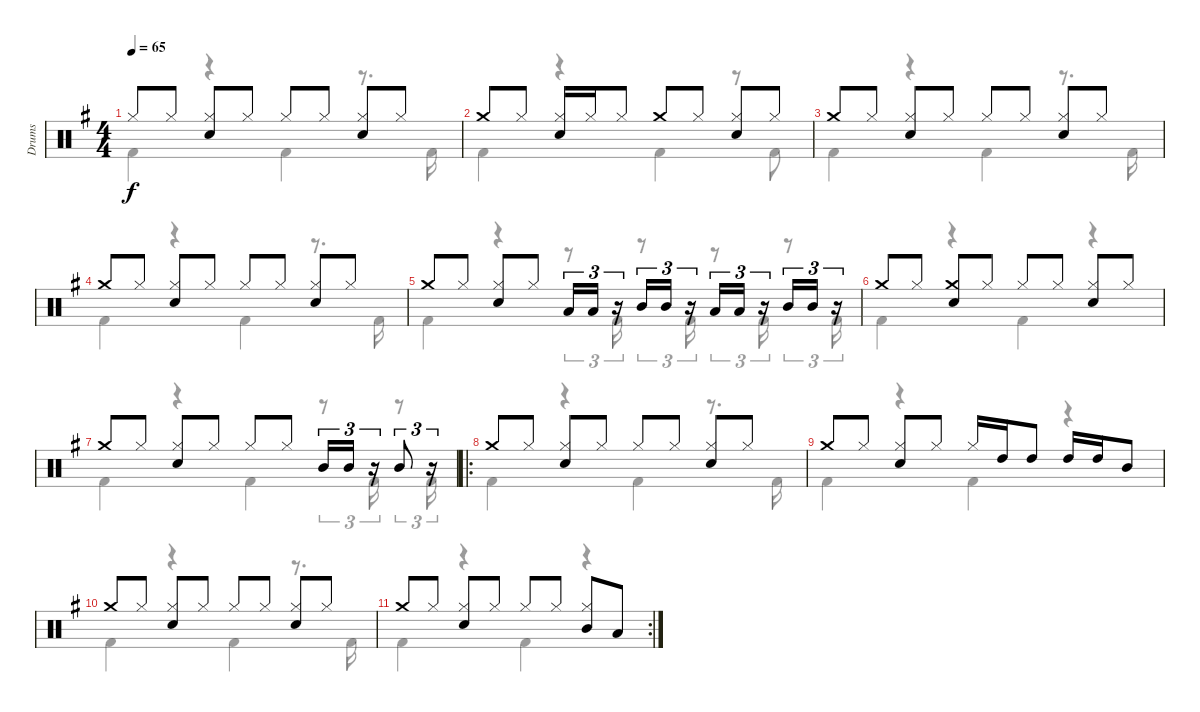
\track ("Drums" "Drums") {instrument percussion}
\staff {score}
\articulation defaults
\voice
\ts (4 4)
\tempo 65
\clef neutral
\ks g "Hi-Hat (closed)".8{dy f} "Hi-Hat (closed)".8
("Hi-Hat (closed)" "Snare (hit) 2").8 "Hi-Hat (closed)".8 "Hi-Hat (closed)".8 "Hi-Hat (closed)".8 ("Hi-Hat (closed)" "Snare (hit) 2").8 "Hi-Hat (closed)".8 |
"Crash medium (hit)".8 "Hi-Hat (closed)".8 ("Hi-Hat (closed)" "Snare (hit) 2").16 "Hi-Hat (closed)".16 "Hi-Hat (closed)".8 "Crash medium (hit)".8 "Hi-Hat (closed)".8 ("Hi-Hat (closed)" "Snare (hit) 2").8 "Hi-Hat (closed)".8 |
"Crash medium (hit)".8 "Hi-Hat (closed)".8 ("Hi-Hat (closed)" "Snare (hit) 2").8 "Hi-Hat (closed)".8 "Hi-Hat (closed)".8 "Hi-Hat (closed)".8 ("Hi-Hat (closed)" "Snare (hit) 2").8 "Hi-Hat (closed)".8 |
"Crash medium (hit)".8 "Hi-Hat (closed)".8 ("Hi-Hat (closed)" "Snare (hit) 2").8 "Hi-Hat (closed)".8 "Hi-Hat (closed)".8 "Hi-Hat (closed)".8 ("Hi-Hat (closed)" "Snare (hit) 2").8 "Hi-Hat (closed)".8 |
"Crash medium (hit)".8 "Hi-Hat (closed)".8 ("Hi-Hat (closed)" "Snare (hit) 2").8 "Hi-Hat (closed)".8 "Low Tom (hit)".16{tu (3 2)} "Low Tom (hit)".16{tu (3 2)} r.16{tu (3 2)} "Mid Tom (hit)".16{tu (3 2)} "Mid Tom (hit)".16{tu (3 2)} r.16{tu (3 2)} "Low Tom (hit)".16{tu (3 2)} "Low Tom (hit)".16{tu (3 2)} r.16{tu (3 2)} "Mid Tom (hit)".16{tu (3 2)} "Mid Tom (hit)".16{tu (3 2)} r.16{tu (3 2)} |
"Crash medium (hit)".8 "Hi-Hat (closed)".8 ("Crash medium (hit)" "Snare (hit) 2").8 "Hi-Hat (closed)".8 "Hi-Hat (closed)".8 "Hi-Hat (closed)".8 ("Hi-Hat (closed)" "Snare (hit) 2").8 "Hi-Hat (closed)".8 |
"Crash medium (hit)".8 "Hi-Hat (closed)".8 ("Hi-Hat (closed)" "Snare (hit) 2").8 "Hi-Hat (closed)".8 "Hi-Hat (closed)".8 "Hi-Hat (closed)".8 "Mid Tom (hit)".16{tu (3 2)} "Mid Tom (hit)".16{tu (3 2)} r.16{tu (3 2)} "Mid Tom (hit)".8{tu (3 2)} r.16{tu (3 2)} |
\ro "Crash medium (hit)".8 "Hi-Hat (closed)".8
("Hi-Hat (closed)" "Snare (hit) 2").8 "Hi-Hat (closed)".8 "Hi-Hat (closed)".8 "Hi-Hat (closed)".8 ("Hi-Hat (closed)" "Snare (hit) 2").8 "Hi-Hat (closed)".8 |
"Crash medium (hit)".8 "Hi-Hat (closed)".8 ("Hi-Hat (closed)" "Snare (hit) 2").8 "Hi-Hat (closed)".8 "Hi-Hat (closed)".16 "High Tom (hit)".16 "High Tom (hit)".8 "High Tom (hit)".16 "High Tom (hit)".16 "Mid Tom (hit)".8 |
"Crash medium (hit)".8 "Hi-Hat (closed)".8 ("Hi-Hat (closed)" "Snare (hit) 2").8 "Hi-Hat (closed)".8 "Hi-Hat (closed)".8 "Hi-Hat (closed)".8 ("Hi-Hat (closed)" "Snare (hit) 2").8 "Hi-Hat (closed)".8 |
\rc 2 "Crash medium (hit)".8 "Hi-Hat (closed)".8
("Hi-Hat (closed)" "Snare (hit) 2").8 "Hi-Hat (closed)".8 "Hi-Hat (closed)".8 "Hi-Hat (closed)".8 ("Hi-Hat (closed)" "Mid Tom (hit)").8 "Low Tom (hit)".8
\voice
\clef neutral
\ottava regular
\simile none
\ks g "Kick (hit) 2".4{dy f}
r.4 "Kick (hit) 2".4 r.8{d} "Kick (hit) 2".16 |
"Kick (hit) 2".4 r.4 "Kick (hit) 2".4 r.8 "Kick (hit) 2".8 |
"Kick (hit) 2".4 r.4 "Kick (hit) 2".4 r.8{d} "Kick (hit) 2".16 |
"Kick (hit) 2".4 r.4 "Kick (hit) 2".4 r.8{d} "Kick (hit) 2".16 |
"Kick (hit) 2".4 r.4 r.8{tu (3 2)} "Kick (hit) 2".16{tu (3 2)} r.8{tu (3 2)} "Kick (hit) 2".16{tu (3 2)} r.8{tu (3 2)} "Kick (hit) 2".16{tu (3 2)} r.8{tu (3 2)} "Kick (hit) 2".16{tu (3 2)} |
"Kick (hit) 2".4 r.4 "Kick (hit) 2".4 r.4 |
"Kick (hit) 2".4 r.4 "Kick (hit) 2".4 r.8{tu (3 2)} "Kick (hit) 2".16{tu (3 2)} r.8{tu (3 2)} "Kick (hit) 2".16{tu (3 2)} |
"Kick (hit) 2".4 r.4 "Kick (hit) 2".4 r.8{d} "Kick (hit) 2".16 |
"Kick (hit) 2".4 r.4 "Kick (hit) 2".4 r.4 |
"Kick (hit) 2".4 r.4 "Kick (hit) 2".4 r.8{d} "Kick (hit) 2".16 |
"Kick (hit) 2".4 r.4 "Kick (hit) 2".4 r.4
